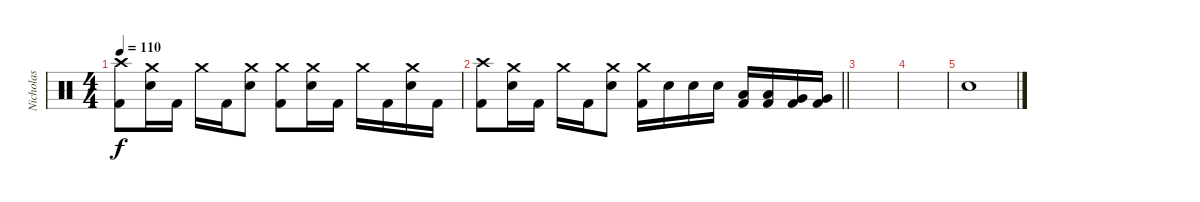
\track ("Nicholas" "Nicholas") {instrument percussion}
\staff {score}
\articulation defaults
\ts (4 4)
\tempo 110
\clef neutral
\ks c
("Crash high (hit)" "Kick (hit) 2").8{dy f} ("Crash medium (hit)" "Snare (hit) 2").16 "Kick (hit) 2".16 "Crash medium (hit)".16 "Kick (hit) 2".16 ("Crash medium (hit)" "Snare (hit) 2").8 ("Crash medium (hit)" "Kick (hit) 2").8 ("Crash medium (hit)" "Snare (hit) 2").16 "Kick (hit) 2".16 "Crash medium (hit)".16 "Kick (hit) 2".16 ("Crash medium (hit)" "Snare (hit) 2").16 "Kick (hit) 2".16 |
\barLineRight lightlight
("Crash high (hit)" "Kick (hit) 2").8 ("Crash medium (hit)" "Snare (hit) 2").16 "Kick (hit) 2".16 "Crash medium (hit)".16 "Kick (hit) 2".16 ("Crash medium (hit)" "Snare (hit) 2").8 ("Crash medium (hit)" "Kick (hit) 2").16 "Snare (hit) 2".16 "Snare (hit) 2".16 "Snare (hit) 2".16 ("Kick (hit) 2" "Low Tom (hit)").16 ("Kick (hit) 2" "Low Tom (hit)").16 ("Kick (hit) 2" "Very Low Tom (hit)").16 ("Kick (hit) 2" "Very Low Tom (hit)").16 |
|
|
"Snare (hit)"{x}.1
